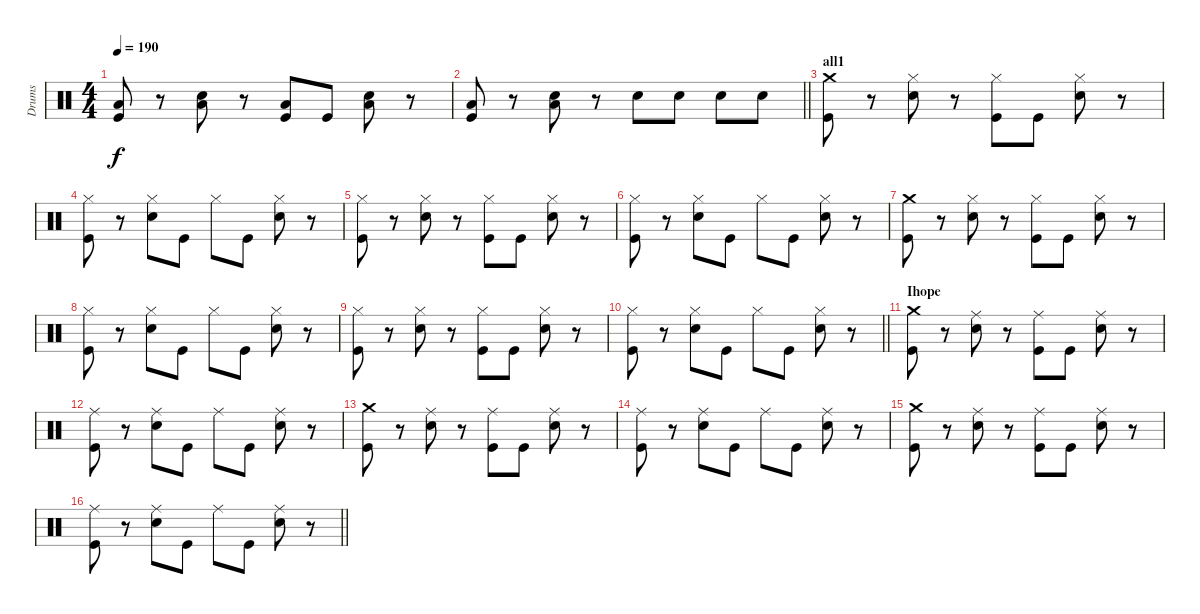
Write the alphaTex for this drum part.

\track ("Drums" "Drums") {instrument percussion}
\staff {score}
\articulation defaults
\ts (4 4)
\tempo 190
\clef neutral
\ks c
("Low Floor Tom (hit)" "Kick (hit)").8{dy f} r.8 ("Low Floor Tom (hit)" "Snare (hit) 2").8 r.8 ("Low Floor Tom (hit)" "Kick (hit)").8 "Kick (hit)".8 ("Low Floor Tom (hit)" "Snare (hit) 2").8 r.8 |
\barLineRight lightlight
("Low Floor Tom (hit)" "Kick (hit)").8 r.8 ("Low Floor Tom (hit)" "Snare (hit) 2").8 r.8 "Snare (hit) 2".8 "Snare (hit) 2".8 "Snare (hit) 2".8 "Snare (hit) 2".8 |
\section ("" "all1")
("Crash medium (hit)" "Kick (hit)").8 r.8 ("Hi-Hat (closed)" "Snare (hit) 2").8 r.8 ("Hi-Hat (closed)" "Kick (hit)").8 "Kick (hit)".8 ("Hi-Hat (closed)" "Snare (hit) 2").8 r.8 |
("Hi-Hat (closed)" "Kick (hit)").8 r.8 ("Hi-Hat (closed)" "Snare (hit) 2").8 "Kick (hit)".8 "Hi-Hat (closed)".8 "Kick (hit)".8 ("Hi-Hat (closed)" "Snare (hit) 2").8 r.8 |
("Hi-Hat (closed)" "Kick (hit)").8 r.8 ("Hi-Hat (closed)" "Snare (hit) 2").8 r.8 ("Hi-Hat (closed)" "Kick (hit)").8 "Kick (hit)".8 ("Hi-Hat (closed)" "Snare (hit) 2").8 r.8 |
("Hi-Hat (closed)" "Kick (hit)").8 r.8 ("Hi-Hat (closed)" "Snare (hit) 2").8 "Kick (hit)".8 "Hi-Hat (closed)".8 "Kick (hit)".8 ("Hi-Hat (closed)" "Snare (hit) 2").8 r.8 |
("Crash medium (hit)" "Kick (hit)").8 r.8 ("Hi-Hat (closed)" "Snare (hit) 2").8 r.8 ("Hi-Hat (closed)" "Kick (hit)").8 "Kick (hit)".8 ("Hi-Hat (closed)" "Snare (hit) 2").8 r.8 |
("Hi-Hat (closed)" "Kick (hit)").8 r.8 ("Hi-Hat (closed)" "Snare (hit) 2").8 "Kick (hit)".8 "Hi-Hat (closed)".8 "Kick (hit)".8 ("Hi-Hat (closed)" "Snare (hit) 2").8 r.8 |
("Hi-Hat (closed)" "Kick (hit)").8 r.8 ("Hi-Hat (closed)" "Snare (hit) 2").8 r.8 ("Hi-Hat (closed)" "Kick (hit)").8 "Kick (hit)".8 ("Hi-Hat (closed)" "Snare (hit) 2").8 r.8 |
\barLineRight lightlight
("Hi-Hat (closed)" "Kick (hit)").8 r.8 ("Hi-Hat (closed)" "Snare (hit) 2").8 "Kick (hit)".8 "Hi-Hat (closed)".8 "Kick (hit)".8 ("Hi-Hat (closed)" "Snare (hit) 2").8 r.8 |
\section ("" "Ihope")
("Crash medium (hit)" "Kick (hit)").8 r.8 ("Ride (middle)" "Snare (hit) 2").8 r.8 ("Ride (middle)" "Kick (hit)").8 "Kick (hit)".8 ("Ride (middle)" "Snare (hit) 2").8 r.8 |
("Ride (middle)" "Kick (hit)").8 r.8 ("Ride (middle)" "Snare (hit) 2").8 "Kick (hit)".8 "Ride (middle)".8 "Kick (hit)".8 ("Ride (middle)" "Snare (hit) 2").8 r.8 |
("Crash medium (hit)" "Kick (hit)").8 r.8 ("Ride (middle)" "Snare (hit) 2").8 r.8 ("Ride (middle)" "Kick (hit)").8 "Kick (hit)".8 ("Ride (middle)" "Snare (hit) 2").8 r.8 |
("Ride (middle)" "Kick (hit)").8 r.8 ("Ride (middle)" "Snare (hit) 2").8 "Kick (hit)".8 "Ride (middle)".8 "Kick (hit)".8 ("Ride (middle)" "Snare (hit) 2").8 r.8 |
("Crash medium (hit)" "Kick (hit)").8 r.8 ("Ride (middle)" "Snare (hit) 2").8 r.8 ("Ride (middle)" "Kick (hit)").8 "Kick (hit)".8 ("Ride (middle)" "Snare (hit) 2").8 r.8 |
\barLineRight lightlight
("Ride (middle)" "Kick (hit)").8 r.8 ("Ride (middle)" "Snare (hit) 2").8 "Kick (hit)".8 "Ride (middle)".8 "Kick (hit)".8 ("Ride (middle)" "Snare (hit) 2").8 r.8
